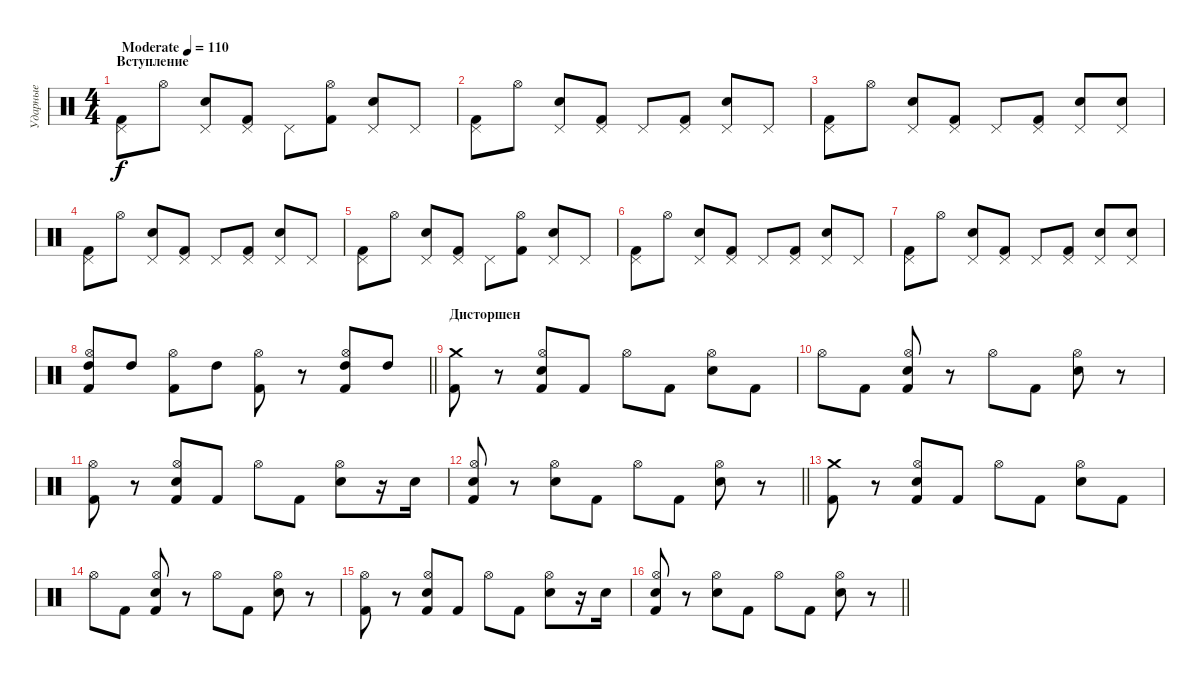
\track ("Ударные" "Ударные") {instrument percussion}
\staff {score}
\articulation defaults
\ts (4 4)
\section ("" "Вступление")
\tempo (110 "Moderate")
\clef neutral
\ks c
("Pedal Hi-Hat (hit)" "Kick (hit) 2").8{dy f} "Hi-Hat (open)".8 ("Pedal Hi-Hat (hit)" "Electric Snare (hit)").8 ("Pedal Hi-Hat (hit)" "Kick (hit) 2").8 "Pedal Hi-Hat (hit)".8 ("Hi-Hat (open)" "Kick (hit) 2").8 ("Pedal Hi-Hat (hit)" "Electric Snare (hit)").8 "Pedal Hi-Hat (hit)".8 |
("Pedal Hi-Hat (hit)" "Kick (hit) 2").8 "Hi-Hat (open)".8 ("Pedal Hi-Hat (hit)" "Electric Snare (hit)").8 ("Pedal Hi-Hat (hit)" "Kick (hit) 2").8 "Pedal Hi-Hat (hit)".8 ("Pedal Hi-Hat (hit)" "Kick (hit) 2").8 ("Pedal Hi-Hat (hit)" "Electric Snare (hit)").8 "Pedal Hi-Hat (hit)".8 |
("Pedal Hi-Hat (hit)" "Kick (hit) 2").8 "Hi-Hat (open)".8 ("Pedal Hi-Hat (hit)" "Electric Snare (hit)").8 ("Pedal Hi-Hat (hit)" "Kick (hit) 2").8 "Pedal Hi-Hat (hit)".8 ("Pedal Hi-Hat (hit)" "Kick (hit) 2").8 ("Pedal Hi-Hat (hit)" "Electric Snare (hit)").8 ("Pedal Hi-Hat (hit)" "Electric Snare (hit)").8 |
("Pedal Hi-Hat (hit)" "Kick (hit) 2").8 "Hi-Hat (open)".8 ("Pedal Hi-Hat (hit)" "Electric Snare (hit)").8 ("Pedal Hi-Hat (hit)" "Kick (hit) 2").8 "Pedal Hi-Hat (hit)".8 ("Pedal Hi-Hat (hit)" "Kick (hit) 2").8 ("Pedal Hi-Hat (hit)" "Electric Snare (hit)").8 "Pedal Hi-Hat (hit)".8 |
("Pedal Hi-Hat (hit)" "Kick (hit) 2").8 "Hi-Hat (open)".8 ("Pedal Hi-Hat (hit)" "Electric Snare (hit)").8 ("Pedal Hi-Hat (hit)" "Kick (hit) 2").8 "Pedal Hi-Hat (hit)".8 ("Hi-Hat (open)" "Kick (hit) 2").8 ("Pedal Hi-Hat (hit)" "Electric Snare (hit)").8 "Pedal Hi-Hat (hit)".8 |
("Pedal Hi-Hat (hit)" "Kick (hit) 2").8 "Hi-Hat (open)".8 ("Pedal Hi-Hat (hit)" "Electric Snare (hit)").8 ("Pedal Hi-Hat (hit)" "Kick (hit) 2").8 "Pedal Hi-Hat (hit)".8 ("Pedal Hi-Hat (hit)" "Kick (hit) 2").8 ("Pedal Hi-Hat (hit)" "Electric Snare (hit)").8 "Pedal Hi-Hat (hit)".8 |
("Pedal Hi-Hat (hit)" "Kick (hit) 2").8 "Hi-Hat (open)".8 ("Pedal Hi-Hat (hit)" "Electric Snare (hit)").8 ("Pedal Hi-Hat (hit)" "Kick (hit) 2").8 "Pedal Hi-Hat (hit)".8 ("Pedal Hi-Hat (hit)" "Kick (hit) 2").8 ("Pedal Hi-Hat (hit)" "Electric Snare (hit)").8 ("Pedal Hi-Hat (hit)" "Electric Snare (hit)").8 |
\barLineRight lightlight
("Hi-Hat (open)" "High Tom (hit)" "Kick (hit) 2").8 "High Tom (hit)".8 ("Hi-Hat (open)" "Kick (hit) 2").8 "High Tom (hit)".8 ("Hi-Hat (open)" "Kick (hit) 2").8 r.8 ("Hi-Hat (open)" "High Tom (hit)" "Kick (hit) 2").8 "High Tom (hit)".8 |
\section ("" "Дисторшен")
("Crash medium (hit)" "Kick (hit) 2").8 r.8 ("Hi-Hat (open)" "Electric Snare (hit)" "Kick (hit) 2").8 "Kick (hit) 2".8 "Hi-Hat (open)".8 "Kick (hit) 2".8 ("Hi-Hat (open)" "Electric Snare (hit)").8 "Kick (hit) 2".8 |
"Hi-Hat (open)".8 "Kick (hit) 2".8 ("Hi-Hat (open)" "Electric Snare (hit)" "Kick (hit) 2").8 r.8 "Hi-Hat (open)".8 "Kick (hit) 2".8 ("Hi-Hat (open)" "Electric Snare (hit)").8 r.8 |
("Hi-Hat (open)" "Kick (hit) 2").8 r.8 ("Hi-Hat (open)" "Electric Snare (hit)" "Kick (hit) 2").8 "Kick (hit) 2".8 "Hi-Hat (open)".8 "Kick (hit) 2".8 ("Hi-Hat (open)" "Electric Snare (hit)").8 r.16 "Electric Snare (hit)".16 |
\barLineRight lightlight
("Hi-Hat (open)" "Electric Snare (hit)" "Kick (hit) 2").8 r.8 ("Hi-Hat (open)" "Electric Snare (hit)").8 "Kick (hit) 2".8 "Hi-Hat (open)".8 "Kick (hit) 2".8 ("Hi-Hat (open)" "Electric Snare (hit)").8 r.8 |
("Crash medium (hit)" "Kick (hit) 2").8 r.8 ("Hi-Hat (open)" "Electric Snare (hit)" "Kick (hit) 2").8 "Kick (hit) 2".8 "Hi-Hat (open)".8 "Kick (hit) 2".8 ("Hi-Hat (open)" "Electric Snare (hit)").8 "Kick (hit) 2".8 |
"Hi-Hat (open)".8 "Kick (hit) 2".8 ("Hi-Hat (open)" "Electric Snare (hit)" "Kick (hit) 2").8 r.8 "Hi-Hat (open)".8 "Kick (hit) 2".8 ("Hi-Hat (open)" "Electric Snare (hit)").8 r.8 |
("Hi-Hat (open)" "Kick (hit) 2").8 r.8 ("Hi-Hat (open)" "Electric Snare (hit)" "Kick (hit) 2").8 "Kick (hit) 2".8 "Hi-Hat (open)".8 "Kick (hit) 2".8 ("Hi-Hat (open)" "Electric Snare (hit)").8 r.16 "Electric Snare (hit)".16 |
\barLineRight lightlight
("Hi-Hat (open)" "Electric Snare (hit)" "Kick (hit) 2").8 r.8 ("Hi-Hat (open)" "Electric Snare (hit)").8 "Kick (hit) 2".8 "Hi-Hat (open)".8 "Kick (hit) 2".8 ("Hi-Hat (open)" "Electric Snare (hit)").8 r.8
